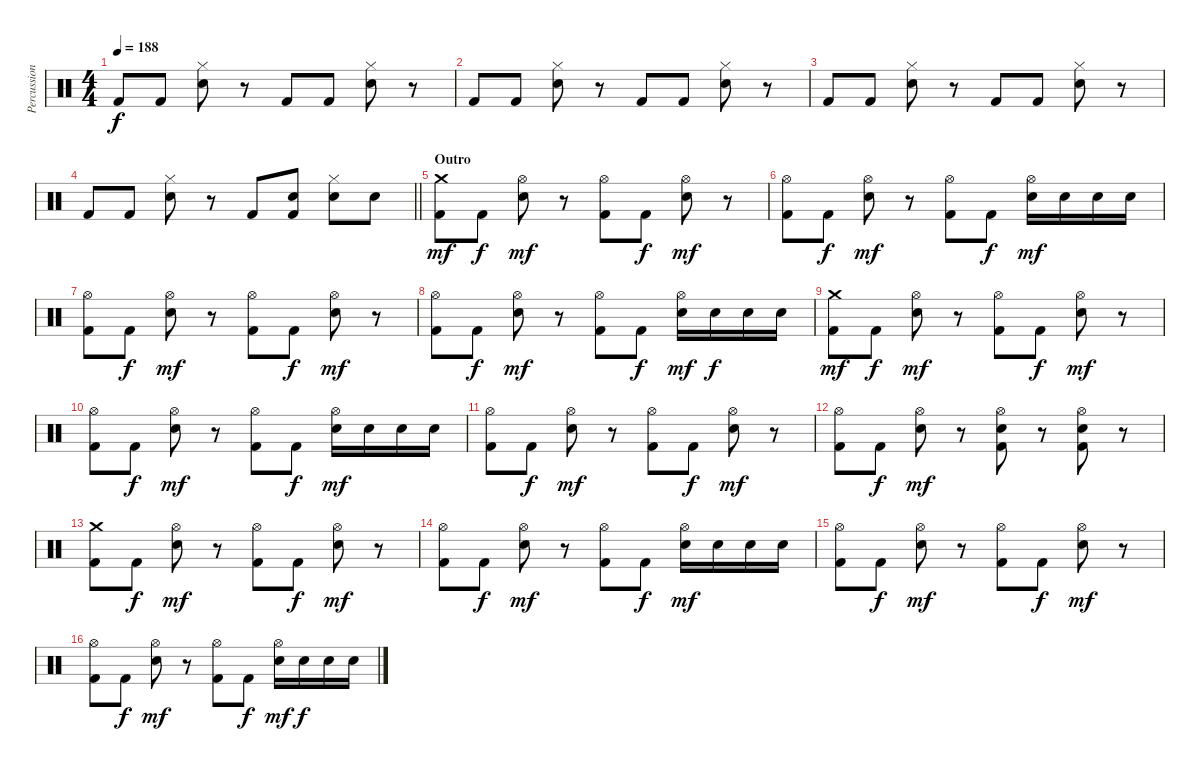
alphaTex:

\track ("Percussion" "Percussion") {instrument percussion}
\staff {score}
\articulation defaults
\ts (4 4)
\tempo 188
\clef neutral
\ks c "Kick (hit) 2".8{dy f} "Kick (hit) 2".8
("Hi-Hat (closed)" "Snare (hit) 2").8 r.8 "Kick (hit) 2".8 "Kick (hit) 2".8 ("Hi-Hat (closed)" "Snare (hit) 2").8 r.8 |
"Kick (hit) 2".8 "Kick (hit) 2".8 ("Hi-Hat (closed)" "Snare (hit) 2").8 r.8 "Kick (hit) 2".8 "Kick (hit) 2".8 ("Hi-Hat (closed)" "Snare (hit) 2").8 r.8 |
"Kick (hit) 2".8 "Kick (hit) 2".8 ("Hi-Hat (closed)" "Snare (hit) 2").8 r.8 "Kick (hit) 2".8 "Kick (hit) 2".8 ("Hi-Hat (closed)" "Snare (hit) 2").8 r.8 |
\barLineRight lightlight "Kick (hit) 2".8 "Kick (hit) 2".8
("Hi-Hat (closed)" "Snare (hit) 2").8 r.8 "Kick (hit) 2".8 ("Snare (hit) 2" "Kick (hit) 2").8 ("Hi-Hat (closed)" "Snare (hit) 2").8 "Snare (hit) 2".8 |
\section ("" "Outro")
("Crash medium (hit)" "Kick (hit) 2").8{dy mf volume 16} "Kick (hit) 2".8{dy f} ("Hi-Hat (open)" "Snare (hit) 2").8{dy mf} r.8 ("Hi-Hat (open)" "Kick (hit) 2").8 "Kick (hit) 2".8{dy f} ("Hi-Hat (open)" "Snare (hit) 2").8{dy mf} r.8 |
("Hi-Hat (open)" "Kick (hit) 2").8 "Kick (hit) 2".8{dy f} ("Hi-Hat (open)" "Snare (hit) 2").8{dy mf} r.8 ("Hi-Hat (open)" "Kick (hit) 2").8 "Kick (hit) 2".8{dy f} ("Hi-Hat (open)" "Snare (hit) 2").16{dy mf} "Snare (hit) 2".16 "Snare (hit) 2".16 "Snare (hit) 2".16 |
("Hi-Hat (open)" "Kick (hit) 2").8 "Kick (hit) 2".8{dy f} ("Hi-Hat (open)" "Snare (hit) 2").8{dy mf} r.8 ("Hi-Hat (open)" "Kick (hit) 2").8 "Kick (hit) 2".8{dy f} ("Hi-Hat (open)" "Snare (hit) 2").8{dy mf} r.8 |
("Hi-Hat (open)" "Kick (hit) 2").8 "Kick (hit) 2".8{dy f} ("Hi-Hat (open)" "Snare (hit) 2").8{dy mf} r.8 ("Hi-Hat (open)" "Kick (hit) 2").8 "Kick (hit) 2".8{dy f} ("Hi-Hat (open)" "Snare (hit) 2").16{dy mf} "Snare (hit) 2".16{dy f} "Snare (hit) 2".16 "Snare (hit) 2".16 |
("Crash medium (hit)" "Kick (hit) 2").8{dy mf} "Kick (hit) 2".8{dy f} ("Hi-Hat (open)" "Snare (hit) 2").8{dy mf} r.8 ("Hi-Hat (open)" "Kick (hit) 2").8 "Kick (hit) 2".8{dy f} ("Hi-Hat (open)" "Snare (hit) 2").8{dy mf} r.8 |
("Hi-Hat (open)" "Kick (hit) 2").8 "Kick (hit) 2".8{dy f} ("Hi-Hat (open)" "Snare (hit) 2").8{dy mf} r.8 ("Hi-Hat (open)" "Kick (hit) 2").8 "Kick (hit) 2".8{dy f} ("Hi-Hat (open)" "Snare (hit) 2").16{dy mf} "Snare (hit) 2".16 "Snare (hit) 2".16 "Snare (hit) 2".16 |
("Hi-Hat (open)" "Kick (hit) 2").8 "Kick (hit) 2".8{dy f} ("Hi-Hat (open)" "Snare (hit) 2").8{dy mf} r.8 ("Hi-Hat (open)" "Kick (hit) 2").8 "Kick (hit) 2".8{dy f} ("Hi-Hat (open)" "Snare (hit) 2").8{dy mf} r.8 |
("Hi-Hat (open)" "Kick (hit) 2").8 "Kick (hit) 2".8{dy f} ("Hi-Hat (open)" "Snare (hit) 2").8{dy mf} r.8 ("Hi-Hat (open)" "Snare (hit) 2" "Kick (hit) 2").8 r.8 ("Hi-Hat (open)" "Snare (hit) 2" "Kick (hit) 2").8 r.8 |
("Crash medium (hit)" "Kick (hit) 2").8{volume 16} "Kick (hit) 2".8{dy f} ("Hi-Hat (open)" "Snare (hit) 2").8{dy mf} r.8 ("Hi-Hat (open)" "Kick (hit) 2").8 "Kick (hit) 2".8{dy f} ("Hi-Hat (open)" "Snare (hit) 2").8{dy mf} r.8 |
("Hi-Hat (open)" "Kick (hit) 2").8 "Kick (hit) 2".8{dy f} ("Hi-Hat (open)" "Snare (hit) 2").8{dy mf} r.8 ("Hi-Hat (open)" "Kick (hit) 2").8 "Kick (hit) 2".8{dy f} ("Hi-Hat (open)" "Snare (hit) 2").16{dy mf} "Snare (hit) 2".16 "Snare (hit) 2".16 "Snare (hit) 2".16 |
("Hi-Hat (open)" "Kick (hit) 2").8 "Kick (hit) 2".8{dy f} ("Hi-Hat (open)" "Snare (hit) 2").8{dy mf} r.8 ("Hi-Hat (open)" "Kick (hit) 2").8 "Kick (hit) 2".8{dy f} ("Hi-Hat (open)" "Snare (hit) 2").8{dy mf} r.8 |
("Hi-Hat (open)" "Kick (hit) 2").8 "Kick (hit) 2".8{dy f} ("Hi-Hat (open)" "Snare (hit) 2").8{dy mf} r.8 ("Hi-Hat (open)" "Kick (hit) 2").8 "Kick (hit) 2".8{dy f} ("Hi-Hat (open)" "Snare (hit) 2").16{dy mf} "Snare (hit) 2".16{dy f} "Snare (hit) 2".16 "Snare (hit) 2".16
